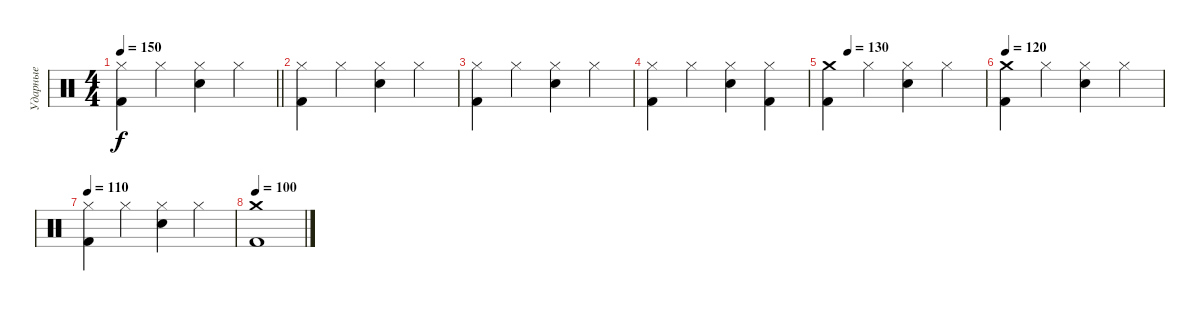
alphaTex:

\track ("Ударные" "Ударные") {instrument percussion}
\staff {score}
\articulation defaults
\ts (4 4)
\tempo 150
\clef neutral
\barLineRight lightlight
\ks c
("Hi-Hat (closed)" "Kick (hit) 2").4{dy f} "Hi-Hat (closed)".4 ("Hi-Hat (closed)" "Snare (hit) 2").4 "Hi-Hat (closed)".4 |
("Hi-Hat (closed)" "Kick (hit) 2").4 "Hi-Hat (closed)".4 ("Hi-Hat (closed)" "Snare (hit) 2").4 "Hi-Hat (closed)".4 |
("Hi-Hat (closed)" "Kick (hit) 2").4 "Hi-Hat (closed)".4 ("Hi-Hat (closed)" "Snare (hit) 2").4 "Hi-Hat (closed)".4 |
("Hi-Hat (closed)" "Kick (hit) 2").4 "Hi-Hat (closed)".4 ("Hi-Hat (closed)" "Snare (hit) 2").4 ("Hi-Hat (closed)" "Kick (hit) 2").4 |
\tempo (130 0.125)
("Crash medium (hit)" "Kick (hit) 2").4 "Hi-Hat (closed)".4 ("Hi-Hat (closed)" "Snare (hit) 2").4 "Hi-Hat (closed)".4 |
\tempo 120
("Crash medium (hit)" "Kick (hit) 2").4 "Hi-Hat (closed)".4 ("Hi-Hat (closed)" "Snare (hit) 2").4 "Hi-Hat (closed)".4 |
\tempo 110
("Hi-Hat (closed)" "Kick (hit) 2").4 "Hi-Hat (closed)".4 ("Hi-Hat (closed)" "Snare (hit) 2").4 "Hi-Hat (closed)".4 |
\tempo 100
("Crash medium (hit)" "Kick (hit) 2").1
